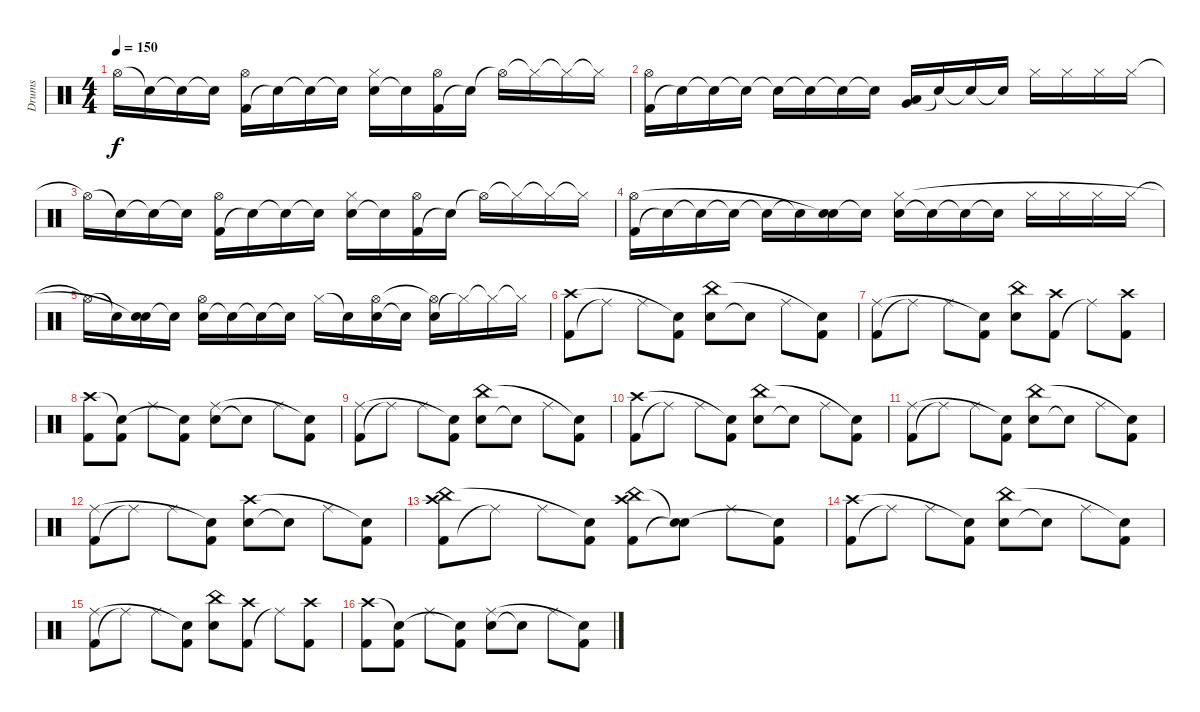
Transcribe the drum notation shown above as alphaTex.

\track ("Drums" "Drums") {instrument percussion}
\staff {score}
\articulation defaults
\ts (4 4)
\tempo 150
\clef neutral
\ks c "Hi-Hat (open)"{t}.16{dy f} "Snare (hit)"{t}.16 "Snare (hit)"{t}.16 "Snare (hit)"{t}.16
("Kick (hit) 2" "Hi-Hat (open)").16 "Snare (hit)"{t}.16 "Snare (hit)"{t}.16 "Snare (hit)"{t}.16 ("Electric Snare (hit)" "Hi-Hat (closed)").16 "Snare (hit)"{t}.16 ("Kick (hit) 2" "Hi-Hat (open)").16 "Snare (hit)"{t}.16 "Hi-Hat (open)"{t}.16 "Hi-Hat (closed)"{t}.16 "Hi-Hat (closed)"{t}.16 "Hi-Hat (closed)"{t}.16 |
("Kick (hit) 2" "Hi-Hat (open)").16 "Snare (hit)"{t}.16 "Snare (hit)"{t}.16 "Snare (hit)"{t}.16 "Snare (hit)"{t}.16 "Snare (hit)"{t}.16 "Snare (hit)"{t}.16 "Snare (hit)"{t}.16 ("Very Low Tom (hit)" "Low Floor Tom (hit)").16 "Snare (hit)"{t}.16 "Snare (hit)"{t}.16 "Snare (hit)"{t}.16 "Hi-Hat (closed)".16 "Hi-Hat (closed)".16 "Hi-Hat (closed)".16 "Hi-Hat (closed)".16 |
"Hi-Hat (open)"{t}.16 "Snare (hit)"{t}.16 "Snare (hit)"{t}.16 "Snare (hit)"{t}.16 ("Kick (hit) 2" "Hi-Hat (open)").16 "Snare (hit)"{t}.16 "Snare (hit)"{t}.16 "Snare (hit)"{t}.16 ("Electric Snare (hit)" "Hi-Hat (closed)").16 "Snare (hit)"{t}.16 ("Kick (hit) 2" "Hi-Hat (open)").16 "Snare (hit)"{t}.16 "Hi-Hat (open)"{t}.16 "Hi-Hat (closed)"{t}.16 "Hi-Hat (closed)"{t}.16 "Hi-Hat (closed)"{t}.16 |
("Kick (hit) 2" "Hi-Hat (open)").16 "Snare (hit)"{t}.16 "Snare (hit)"{t}.16 "Snare (hit)"{t}.16 "Snare (hit)"{t}.16 "Snare (hit)"{t}.16 ("Electric Snare (hit)" "Snare (hit)"{t}).16 "Snare (hit)"{t}.16 ("Electric Snare (hit)" "Hi-Hat (closed)").16 "Snare (hit)"{t}.16 "Snare (hit)"{t}.16 "Snare (hit)"{t}.16 "Hi-Hat (closed)".16 "Hi-Hat (closed)".16 "Hi-Hat (closed)".16 "Hi-Hat (closed)".16 |
"Hi-Hat (open)"{t}.16 "Snare (hit)"{t}.16 ("Electric Snare (hit)" "Snare (hit)"{t}).16 "Snare (hit)"{t}.16 ("Electric Snare (hit)" "Hi-Hat (open)").16 "Snare (hit)"{t}.16 "Snare (hit)"{t}.16 "Snare (hit)"{t}.16 "Hi-Hat (closed)".16 "Snare (hit)"{t}.16 ("Electric Snare (hit)" "Hi-Hat (open)").16 "Snare (hit)"{t}.16 ("Electric Snare (hit)" "Hi-Hat (open)"{t}).16 "Hi-Hat (closed)"{t}.16 "Hi-Hat (closed)"{t}.16 "Hi-Hat (closed)"{t}.16 |
("Kick (hit) 2" "Crash high (hit)").8 "Ride (middle)"{t}.8 "Ride (middle)".8 ("Kick (hit) 2" "Snare (hit)"{t}).8 ("Electric Snare (hit)" "China (hit)").8 "Snare (hit)"{t}.8 "Ride (middle)".8 ("Kick (hit) 2" "Snare (hit)"{t}).8 |
("Kick (hit) 2" "Ride (middle)").8 "Ride (middle)"{t}.8 "Ride (middle)".8 ("Kick (hit) 2" "Snare (hit)"{t}).8 ("Electric Snare (hit)" "China (hit)").8 ("Kick (hit) 2" "Crash high (hit)").8 "Ride (middle)"{t}.8 ("Kick (hit) 2" "Crash high (hit)").8 |
("Kick (hit) 2" "Crash high (hit)").8 ("Kick (hit) 2" "Snare (hit)"{t}).8 "Ride (middle)".8 ("Kick (hit) 2" "Snare (hit)"{t}).8 ("Electric Snare (hit)" "Ride (middle)").8 "Snare (hit)"{t}.8 "Ride (middle)".8 ("Kick (hit) 2" "Snare (hit)"{t}).8 |
("Kick (hit) 2" "Ride (middle)").8 "Ride (middle)"{t}.8 "Ride (middle)".8 ("Kick (hit) 2" "Snare (hit)"{t}).8 ("Electric Snare (hit)" "China (hit)").8 "Snare (hit)"{t}.8 "Ride (middle)".8 ("Kick (hit) 2" "Snare (hit)"{t}).8 |
("Kick (hit) 2" "Crash high (hit)").8 "Ride (middle)"{t}.8 "Ride (middle)".8 ("Kick (hit) 2" "Snare (hit)"{t}).8 ("Electric Snare (hit)" "China (hit)").8 "Snare (hit)"{t}.8 "Ride (middle)".8 ("Kick (hit) 2" "Snare (hit)"{t}).8 |
("Kick (hit) 2" "Ride (middle)").8 "Ride (middle)"{t}.8 "Ride (middle)".8 ("Kick (hit) 2" "Snare (hit)"{t}).8 ("Electric Snare (hit)" "China (hit)").8 "Snare (hit)"{t}.8 "Ride (middle)".8 ("Kick (hit) 2" "Snare (hit)"{t}).8 |
("Kick (hit) 2" "Ride (middle)").8 "Ride (middle)"{t}.8 "Ride (middle)".8 ("Kick (hit) 2" "Snare (hit)"{t}).8 ("Electric Snare (hit)" "Crash high (hit)").8 "Snare (hit)"{t}.8 "Ride (middle)".8 ("Kick (hit) 2" "Snare (hit)"{t}).8 |
("Kick (hit) 2" "China (hit)" "Crash high (hit)").8 "Ride (middle)"{t}.8 "Ride (middle)".8 ("Kick (hit) 2" "Snare (hit)"{t}).8 ("Kick (hit) 2" "China (hit)" "Crash high (hit)").8 ("Snare (hit)"{t} "Snare (hit)"{t}).8 "Ride (middle)".8 ("Kick (hit) 2" "Snare (hit)"{t}).8 |
("Kick (hit) 2" "Crash high (hit)").8 "Ride (middle)"{t}.8 "Ride (middle)".8 ("Kick (hit) 2" "Snare (hit)"{t}).8 ("Electric Snare (hit)" "China (hit)").8 "Snare (hit)"{t}.8 "Ride (middle)".8 ("Kick (hit) 2" "Snare (hit)"{t}).8 |
("Kick (hit) 2" "Ride (middle)").8 "Ride (middle)"{t}.8 "Ride (middle)".8 ("Kick (hit) 2" "Snare (hit)"{t}).8 ("Electric Snare (hit)" "China (hit)").8 ("Kick (hit) 2" "Crash high (hit)").8 "Ride (middle)"{t}.8 ("Kick (hit) 2" "Crash high (hit)").8 |
("Kick (hit) 2" "Crash high (hit)").8 ("Kick (hit) 2" "Snare (hit)"{t}).8 "Ride (middle)".8 ("Kick (hit) 2" "Snare (hit)"{t}).8 ("Electric Snare (hit)" "Ride (middle)").8 "Snare (hit)"{t}.8 "Ride (middle)".8 ("Kick (hit) 2" "Snare (hit)"{t}).8
